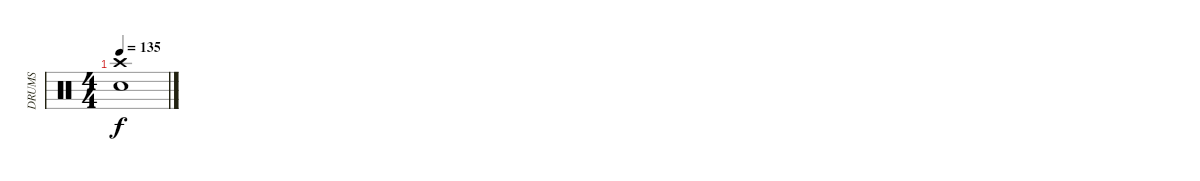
\track ("DRUMS" "DRUMS") {instrument percussion}
\staff {score}
\articulation defaults
\ts (4 4)
\tempo 135
\clef neutral
\ks c
("Crash high (hit)" "Snare (hit) 2").1{dy f}
